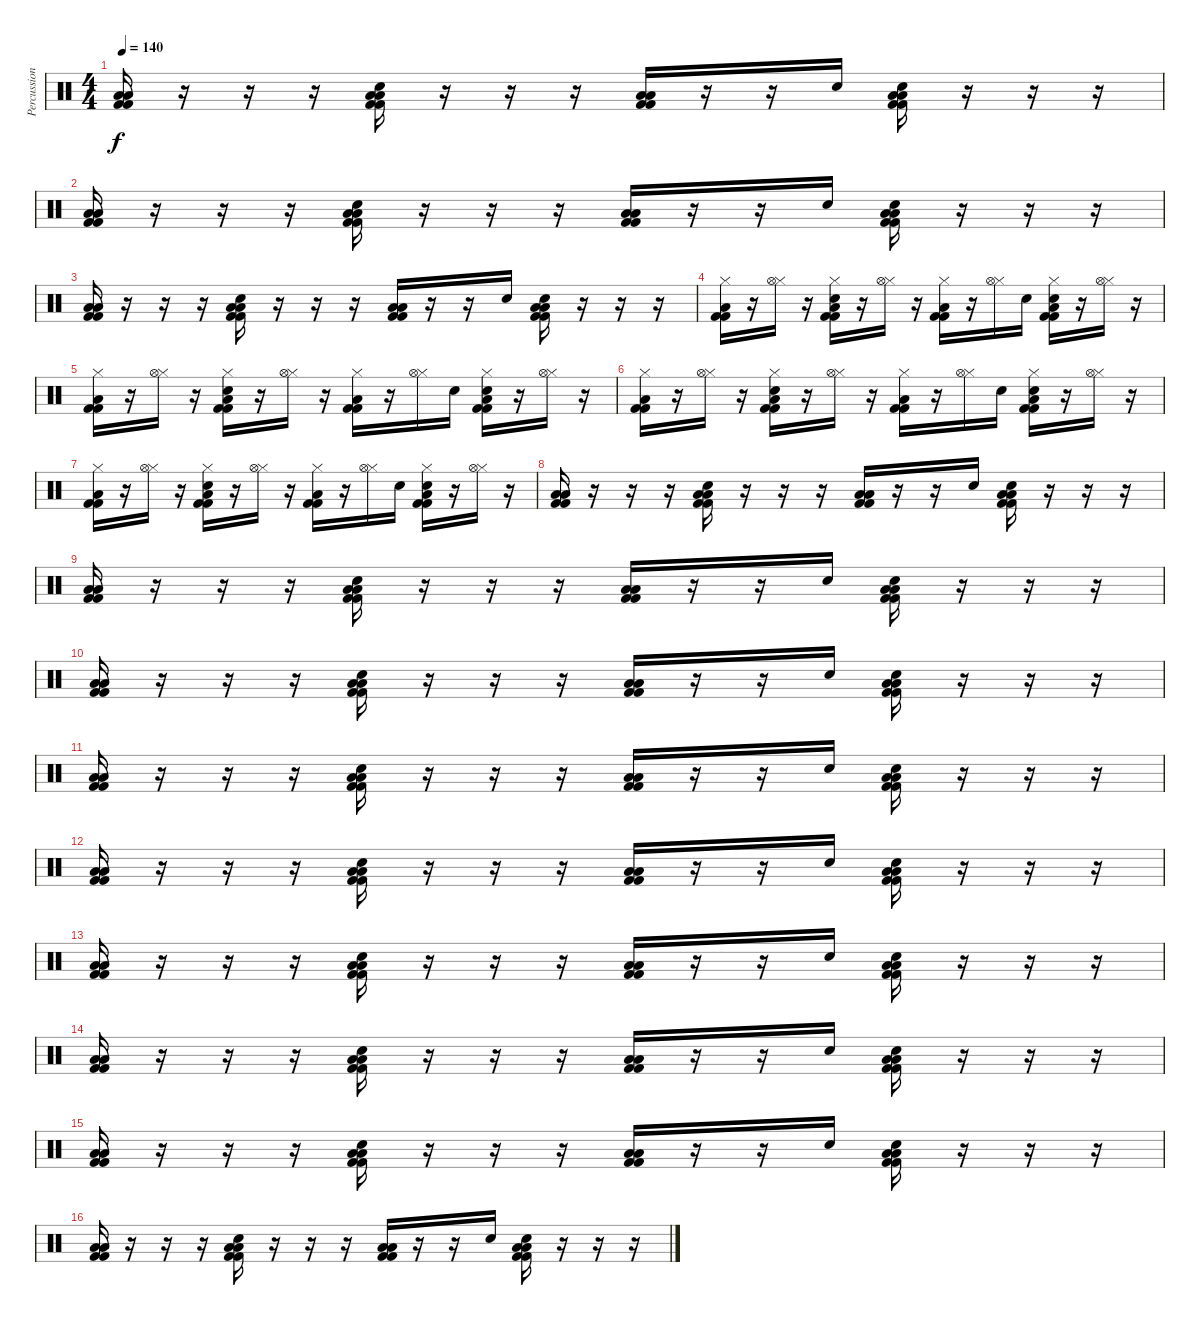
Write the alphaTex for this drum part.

\track ("Percussion" "Percussion") {instrument percussion}
\staff {score}
\articulation defaults
\ts (4 4)
\tempo 140
\clef neutral
\ks c
("Low Tom (hit)" "Low Tom (hit)" "Kick (hit) 2" "Kick (hit) 2").16{dy f} r.16 r.16 r.16 ("Low Tom (hit)" "Low Tom (hit)" "Kick (hit) 2" "Kick (hit) 2" "Hand Clap (hit)").16 r.16 r.16 r.16 ("Low Tom (hit)" "Low Tom (hit)" "Kick (hit) 2" "Kick (hit) 2").16 r.16 r.16 "Hand Clap (hit)".16 ("Low Tom (hit)" "Low Tom (hit)" "Kick (hit) 2" "Kick (hit) 2" "Hand Clap (hit)").16 r.16 r.16 r.16 |
("Low Tom (hit)" "Low Tom (hit)" "Kick (hit) 2" "Kick (hit) 2").16 r.16 r.16 r.16 ("Low Tom (hit)" "Low Tom (hit)" "Kick (hit) 2" "Kick (hit) 2" "Hand Clap (hit)").16 r.16 r.16 r.16 ("Low Tom (hit)" "Low Tom (hit)" "Kick (hit) 2" "Kick (hit) 2").16 r.16 r.16 "Hand Clap (hit)".16 ("Low Tom (hit)" "Low Tom (hit)" "Kick (hit) 2" "Kick (hit) 2" "Hand Clap (hit)").16 r.16 r.16 r.16 |
("Low Tom (hit)" "Low Tom (hit)" "Kick (hit) 2" "Kick (hit) 2").16 r.16 r.16 r.16 ("Low Tom (hit)" "Low Tom (hit)" "Kick (hit) 2" "Kick (hit) 2" "Hand Clap (hit)").16 r.16 r.16 r.16 ("Low Tom (hit)" "Low Tom (hit)" "Kick (hit) 2" "Kick (hit) 2").16 r.16 r.16 "Hand Clap (hit)".16 ("Low Tom (hit)" "Low Tom (hit)" "Kick (hit) 2" "Kick (hit) 2" "Hand Clap (hit)").16 r.16 r.16 r.16 |
("Hi-Hat (closed)" "Low Tom (hit)" "Kick (hit) 2" "Kick (hit) 2").16 r.16 ("Hi-Hat (closed)" "Hi-Hat (open)").16 r.16 ("Hi-Hat (closed)" "Low Tom (hit)" "Kick (hit) 2" "Kick (hit) 2" "Hand Clap (hit)").16 r.16 ("Hi-Hat (closed)" "Hi-Hat (open)").16 r.16 ("Hi-Hat (closed)" "Low Tom (hit)" "Kick (hit) 2" "Kick (hit) 2").16 r.16 ("Hi-Hat (closed)" "Hi-Hat (open)").16 "Hand Clap (hit)".16 ("Hi-Hat (closed)" "Low Tom (hit)" "Kick (hit) 2" "Kick (hit) 2" "Hand Clap (hit)").16 r.16 ("Hi-Hat (closed)" "Hi-Hat (open)").16 r.16 |
("Hi-Hat (closed)" "Low Tom (hit)" "Kick (hit) 2" "Kick (hit) 2").16 r.16 ("Hi-Hat (closed)" "Hi-Hat (open)").16 r.16 ("Hi-Hat (closed)" "Low Tom (hit)" "Kick (hit) 2" "Kick (hit) 2" "Hand Clap (hit)").16 r.16 ("Hi-Hat (closed)" "Hi-Hat (open)").16 r.16 ("Hi-Hat (closed)" "Low Tom (hit)" "Kick (hit) 2" "Kick (hit) 2").16 r.16 ("Hi-Hat (closed)" "Hi-Hat (open)").16 "Hand Clap (hit)".16 ("Hi-Hat (closed)" "Low Tom (hit)" "Kick (hit) 2" "Kick (hit) 2" "Hand Clap (hit)").16 r.16 ("Hi-Hat (closed)" "Hi-Hat (open)").16 r.16 |
("Hi-Hat (closed)" "Low Tom (hit)" "Kick (hit) 2" "Kick (hit) 2").16 r.16 ("Hi-Hat (closed)" "Hi-Hat (open)").16 r.16 ("Hi-Hat (closed)" "Low Tom (hit)" "Kick (hit) 2" "Kick (hit) 2" "Hand Clap (hit)").16 r.16 ("Hi-Hat (closed)" "Hi-Hat (open)").16 r.16 ("Hi-Hat (closed)" "Low Tom (hit)" "Kick (hit) 2" "Kick (hit) 2").16 r.16 ("Hi-Hat (closed)" "Hi-Hat (open)").16 "Hand Clap (hit)".16 ("Hi-Hat (closed)" "Low Tom (hit)" "Kick (hit) 2" "Kick (hit) 2" "Hand Clap (hit)").16 r.16 ("Hi-Hat (closed)" "Hi-Hat (open)").16 r.16 |
("Hi-Hat (closed)" "Low Tom (hit)" "Kick (hit) 2" "Kick (hit) 2").16 r.16 ("Hi-Hat (closed)" "Hi-Hat (open)").16 r.16 ("Hi-Hat (closed)" "Low Tom (hit)" "Kick (hit) 2" "Kick (hit) 2" "Hand Clap (hit)").16 r.16 ("Hi-Hat (closed)" "Hi-Hat (open)").16 r.16 ("Hi-Hat (closed)" "Low Tom (hit)" "Kick (hit) 2" "Kick (hit) 2").16 r.16 ("Hi-Hat (closed)" "Hi-Hat (open)").16 "Hand Clap (hit)".16 ("Hi-Hat (closed)" "Low Tom (hit)" "Kick (hit) 2" "Kick (hit) 2" "Hand Clap (hit)").16 r.16 ("Hi-Hat (closed)" "Hi-Hat (open)").16 r.16 |
("Low Tom (hit)" "Low Tom (hit)" "Kick (hit) 2" "Kick (hit) 2").16 r.16 r.16 r.16 ("Low Tom (hit)" "Low Tom (hit)" "Kick (hit) 2" "Kick (hit) 2" "Hand Clap (hit)").16 r.16 r.16 r.16 ("Low Tom (hit)" "Low Tom (hit)" "Kick (hit) 2" "Kick (hit) 2").16 r.16 r.16 "Hand Clap (hit)".16 ("Low Tom (hit)" "Low Tom (hit)" "Kick (hit) 2" "Kick (hit) 2" "Hand Clap (hit)").16 r.16 r.16 r.16 |
("Low Tom (hit)" "Low Tom (hit)" "Kick (hit) 2" "Kick (hit) 2").16 r.16 r.16 r.16 ("Low Tom (hit)" "Low Tom (hit)" "Kick (hit) 2" "Kick (hit) 2" "Hand Clap (hit)").16 r.16 r.16 r.16 ("Low Tom (hit)" "Low Tom (hit)" "Kick (hit) 2" "Kick (hit) 2").16 r.16 r.16 "Hand Clap (hit)".16 ("Low Tom (hit)" "Low Tom (hit)" "Kick (hit) 2" "Kick (hit) 2" "Hand Clap (hit)").16 r.16 r.16 r.16 |
("Low Tom (hit)" "Low Tom (hit)" "Kick (hit) 2" "Kick (hit) 2").16 r.16 r.16 r.16 ("Low Tom (hit)" "Low Tom (hit)" "Kick (hit) 2" "Kick (hit) 2" "Hand Clap (hit)").16 r.16 r.16 r.16 ("Low Tom (hit)" "Low Tom (hit)" "Kick (hit) 2" "Kick (hit) 2").16 r.16 r.16 "Hand Clap (hit)".16 ("Low Tom (hit)" "Low Tom (hit)" "Kick (hit) 2" "Kick (hit) 2" "Hand Clap (hit)").16 r.16 r.16 r.16 |
("Low Tom (hit)" "Low Tom (hit)" "Kick (hit) 2" "Kick (hit) 2").16 r.16 r.16 r.16 ("Low Tom (hit)" "Low Tom (hit)" "Kick (hit) 2" "Kick (hit) 2" "Hand Clap (hit)").16 r.16 r.16 r.16 ("Low Tom (hit)" "Low Tom (hit)" "Kick (hit) 2" "Kick (hit) 2").16 r.16 r.16 "Hand Clap (hit)".16 ("Low Tom (hit)" "Low Tom (hit)" "Kick (hit) 2" "Kick (hit) 2" "Hand Clap (hit)").16 r.16 r.16 r.16 |
("Low Tom (hit)" "Low Tom (hit)" "Kick (hit) 2" "Kick (hit) 2").16 r.16 r.16 r.16 ("Low Tom (hit)" "Low Tom (hit)" "Kick (hit) 2" "Kick (hit) 2" "Hand Clap (hit)").16 r.16 r.16 r.16 ("Low Tom (hit)" "Low Tom (hit)" "Kick (hit) 2" "Kick (hit) 2").16 r.16 r.16 "Hand Clap (hit)".16 ("Low Tom (hit)" "Low Tom (hit)" "Kick (hit) 2" "Kick (hit) 2" "Hand Clap (hit)").16 r.16 r.16 r.16 |
("Low Tom (hit)" "Low Tom (hit)" "Kick (hit) 2" "Kick (hit) 2").16 r.16 r.16 r.16 ("Low Tom (hit)" "Low Tom (hit)" "Kick (hit) 2" "Kick (hit) 2" "Hand Clap (hit)").16 r.16 r.16 r.16 ("Low Tom (hit)" "Low Tom (hit)" "Kick (hit) 2" "Kick (hit) 2").16 r.16 r.16 "Hand Clap (hit)".16 ("Low Tom (hit)" "Low Tom (hit)" "Kick (hit) 2" "Kick (hit) 2" "Hand Clap (hit)").16 r.16 r.16 r.16 |
("Low Tom (hit)" "Low Tom (hit)" "Kick (hit) 2" "Kick (hit) 2").16 r.16 r.16 r.16 ("Low Tom (hit)" "Low Tom (hit)" "Kick (hit) 2" "Kick (hit) 2" "Hand Clap (hit)").16 r.16 r.16 r.16 ("Low Tom (hit)" "Low Tom (hit)" "Kick (hit) 2" "Kick (hit) 2").16 r.16 r.16 "Hand Clap (hit)".16 ("Low Tom (hit)" "Low Tom (hit)" "Kick (hit) 2" "Kick (hit) 2" "Hand Clap (hit)").16 r.16 r.16 r.16 |
("Low Tom (hit)" "Low Tom (hit)" "Kick (hit) 2" "Kick (hit) 2").16 r.16 r.16 r.16 ("Low Tom (hit)" "Low Tom (hit)" "Kick (hit) 2" "Kick (hit) 2" "Hand Clap (hit)").16 r.16 r.16 r.16 ("Low Tom (hit)" "Low Tom (hit)" "Kick (hit) 2" "Kick (hit) 2").16 r.16 r.16 "Hand Clap (hit)".16 ("Low Tom (hit)" "Low Tom (hit)" "Kick (hit) 2" "Kick (hit) 2" "Hand Clap (hit)").16 r.16 r.16 r.16 |
("Low Tom (hit)" "Low Tom (hit)" "Kick (hit) 2" "Kick (hit) 2").16 r.16 r.16 r.16 ("Low Tom (hit)" "Low Tom (hit)" "Kick (hit) 2" "Kick (hit) 2" "Hand Clap (hit)").16 r.16 r.16 r.16 ("Low Tom (hit)" "Low Tom (hit)" "Kick (hit) 2" "Kick (hit) 2").16 r.16 r.16 "Hand Clap (hit)".16 ("Low Tom (hit)" "Low Tom (hit)" "Kick (hit) 2" "Kick (hit) 2" "Hand Clap (hit)").16 r.16 r.16 r.16
